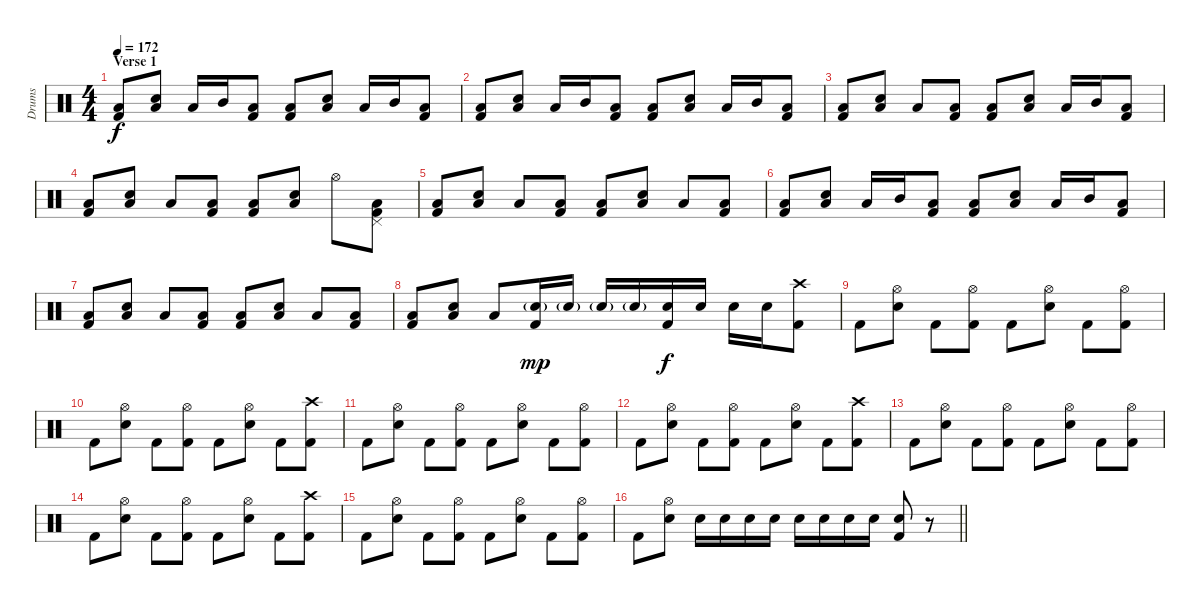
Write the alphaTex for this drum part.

\track ("Drums" "Drums") {instrument percussion}
\staff {score}
\articulation defaults
\ts (4 4)
\section ("" "Verse 1")
\tempo 172
\clef neutral
\ks c
("Low Floor Tom (hit)" "Kick (hit) 2").8{dy f} ("Electric Snare (hit)" "Low Floor Tom (hit)").8 "Low Floor Tom (hit)".16 "Mid Tom (hit)".16 ("Low Floor Tom (hit)" "Kick (hit) 2").8 ("Low Floor Tom (hit)" "Kick (hit) 2").8 ("Electric Snare (hit)" "Low Floor Tom (hit)").8 "Low Floor Tom (hit)".16 "Mid Tom (hit)".16 ("Low Floor Tom (hit)" "Kick (hit) 2").8 |
("Low Floor Tom (hit)" "Kick (hit) 2").8 ("Electric Snare (hit)" "Low Floor Tom (hit)").8 "Low Floor Tom (hit)".16 "Mid Tom (hit)".16 ("Low Floor Tom (hit)" "Kick (hit) 2").8 ("Low Floor Tom (hit)" "Kick (hit) 2").8 ("Electric Snare (hit)" "Low Floor Tom (hit)").8 "Low Floor Tom (hit)".16 "Mid Tom (hit)".16 ("Low Floor Tom (hit)" "Kick (hit) 2").8 |
("Low Floor Tom (hit)" "Kick (hit) 2").8 ("Electric Snare (hit)" "Low Floor Tom (hit)").8 "Low Floor Tom (hit)".8 ("Low Floor Tom (hit)" "Kick (hit) 2").8 ("Low Floor Tom (hit)" "Kick (hit) 2").8 ("Electric Snare (hit)" "Low Floor Tom (hit)").8 "Low Floor Tom (hit)".16 "Mid Tom (hit)".16 ("Low Floor Tom (hit)" "Kick (hit) 2").8 |
("Low Floor Tom (hit)" "Kick (hit) 2").8 ("Electric Snare (hit)" "Low Floor Tom (hit)").8 "Low Floor Tom (hit)".8 ("Low Floor Tom (hit)" "Kick (hit) 2").8 ("Low Floor Tom (hit)" "Kick (hit) 2").8 ("Electric Snare (hit)" "Low Floor Tom (hit)").8 "Hi-Hat (open)".8 ("Pedal Hi-Hat (hit)" "Low Floor Tom (hit)" "Kick (hit) 2").8 |
("Low Floor Tom (hit)" "Kick (hit) 2").8 ("Electric Snare (hit)" "Low Floor Tom (hit)").8 "Low Floor Tom (hit)".8 ("Low Floor Tom (hit)" "Kick (hit) 2").8 ("Low Floor Tom (hit)" "Kick (hit) 2").8 ("Electric Snare (hit)" "Low Floor Tom (hit)").8 "Low Floor Tom (hit)".8 ("Low Floor Tom (hit)" "Kick (hit) 2").8 |
("Low Floor Tom (hit)" "Kick (hit) 2").8 ("Electric Snare (hit)" "Low Floor Tom (hit)").8 "Low Floor Tom (hit)".16 "Mid Tom (hit)".16 ("Low Floor Tom (hit)" "Kick (hit) 2").8 ("Low Floor Tom (hit)" "Kick (hit) 2").8 ("Electric Snare (hit)" "Low Floor Tom (hit)").8 "Low Floor Tom (hit)".16 "Mid Tom (hit)".16 ("Low Floor Tom (hit)" "Kick (hit) 2").8 |
("Low Floor Tom (hit)" "Kick (hit) 2").8 ("Electric Snare (hit)" "Low Floor Tom (hit)").8 "Low Floor Tom (hit)".8 ("Low Floor Tom (hit)" "Kick (hit) 2").8 ("Low Floor Tom (hit)" "Kick (hit) 2").8 ("Electric Snare (hit)" "Low Floor Tom (hit)").8 "Low Floor Tom (hit)".8 ("Low Floor Tom (hit)" "Kick (hit) 2").8 |
("Low Floor Tom (hit)" "Kick (hit) 2").8 ("Electric Snare (hit)" "Low Floor Tom (hit)").8 "Low Floor Tom (hit)".8 ("Electric Snare (hit)"{g} "Kick (hit) 2").16{dy mp} "Electric Snare (hit)"{g}.16 "Electric Snare (hit)"{g}.16 "Electric Snare (hit)"{g}.16 ("Electric Snare (hit)" "Kick (hit) 2").16{dy f} "Electric Snare (hit)".16 "Electric Snare (hit)".16 "Electric Snare (hit)".16 ("Crash high (hit)" "Kick (hit) 2").8 |
"Kick (hit) 2".8 ("Hi-Hat (open)" "Electric Snare (hit)").8 "Kick (hit) 2".8 ("Hi-Hat (open)" "Kick (hit) 2").8 "Kick (hit) 2".8 ("Hi-Hat (open)" "Electric Snare (hit)").8 "Kick (hit) 2".8 ("Hi-Hat (open)" "Kick (hit) 2").8 |
"Kick (hit) 2".8 ("Hi-Hat (open)" "Electric Snare (hit)").8 "Kick (hit) 2".8 ("Hi-Hat (open)" "Kick (hit) 2").8 "Kick (hit) 2".8 ("Hi-Hat (open)" "Electric Snare (hit)").8 "Kick (hit) 2".8 ("Crash high (hit)" "Kick (hit) 2").8 |
"Kick (hit) 2".8 ("Hi-Hat (open)" "Electric Snare (hit)").8 "Kick (hit) 2".8 ("Hi-Hat (open)" "Kick (hit) 2").8 "Kick (hit) 2".8 ("Hi-Hat (open)" "Electric Snare (hit)").8 "Kick (hit) 2".8 ("Hi-Hat (open)" "Kick (hit) 2").8 |
"Kick (hit) 2".8 ("Hi-Hat (open)" "Electric Snare (hit)").8 "Kick (hit) 2".8 ("Hi-Hat (open)" "Kick (hit) 2").8 "Kick (hit) 2".8 ("Hi-Hat (open)" "Electric Snare (hit)").8 "Kick (hit) 2".8 ("Crash high (hit)" "Kick (hit) 2").8 |
"Kick (hit) 2".8 ("Hi-Hat (open)" "Electric Snare (hit)").8 "Kick (hit) 2".8 ("Hi-Hat (open)" "Kick (hit) 2").8 "Kick (hit) 2".8 ("Hi-Hat (open)" "Electric Snare (hit)").8 "Kick (hit) 2".8 ("Hi-Hat (open)" "Kick (hit) 2").8 |
"Kick (hit) 2".8 ("Hi-Hat (open)" "Electric Snare (hit)").8 "Kick (hit) 2".8 ("Hi-Hat (open)" "Kick (hit) 2").8 "Kick (hit) 2".8 ("Hi-Hat (open)" "Electric Snare (hit)").8 "Kick (hit) 2".8 ("Crash high (hit)" "Kick (hit) 2").8 |
"Kick (hit) 2".8 ("Hi-Hat (open)" "Electric Snare (hit)").8 "Kick (hit) 2".8 ("Hi-Hat (open)" "Kick (hit) 2").8 "Kick (hit) 2".8 ("Hi-Hat (open)" "Electric Snare (hit)").8 "Kick (hit) 2".8 ("Hi-Hat (open)" "Kick (hit) 2").8 |
\barLineRight lightlight "Kick (hit) 2".8
("Hi-Hat (open)" "Electric Snare (hit)").8 "Electric Snare (hit)".16 "Electric Snare (hit)".16 "Electric Snare (hit)".16 "Electric Snare (hit)".16 "Electric Snare (hit)".16 "Electric Snare (hit)".16 "Electric Snare (hit)".16 "Electric Snare (hit)".16 ("Electric Snare (hit)" "Kick (hit) 2").8 r.8
